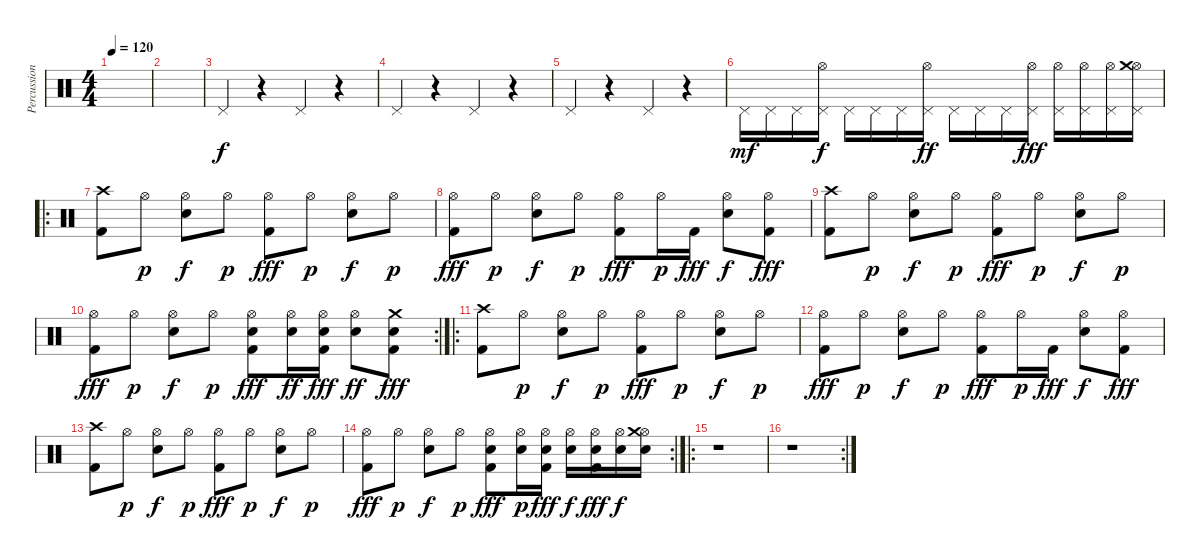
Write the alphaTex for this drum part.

\track ("Percussions" "Percussion") {instrument percussion}
\staff {score}
\articulation defaults
\ts (4 4)
\tempo 120
\clef neutral
\ks c
|
|
"Pedal Hi-Hat (hit)".4 r.4 "Pedal Hi-Hat (hit)".4 r.4 |
"Pedal Hi-Hat (hit)".4 r.4 "Pedal Hi-Hat (hit)".4 r.4 |
"Pedal Hi-Hat (hit)".4 r.4 "Pedal Hi-Hat (hit)".4 r.4 |
"Pedal Hi-Hat (hit)".16{dy mf} "Pedal Hi-Hat (hit)".16 "Pedal Hi-Hat (hit)".16 ("Pedal Hi-Hat (hit)" "Hi-Hat (open)").16{dy f} "Pedal Hi-Hat (hit)".16 "Pedal Hi-Hat (hit)".16 "Pedal Hi-Hat (hit)".16 ("Pedal Hi-Hat (hit)" "Hi-Hat (open)").16{dy ff} "Pedal Hi-Hat (hit)".16 "Pedal Hi-Hat (hit)".16 "Pedal Hi-Hat (hit)".16 ("Pedal Hi-Hat (hit)" "Hi-Hat (open)").16{dy fff} ("Pedal Hi-Hat (hit)" "Hi-Hat (open)").16 ("Pedal Hi-Hat (hit)" "Hi-Hat (open)").16 ("Pedal Hi-Hat (hit)" "Hi-Hat (open)").16 ("Pedal Hi-Hat (hit)" "Hi-Hat (open)" "Crash medium (hit)").16 |
\ro
("Kick (hit) 2" "Crash high (hit)").8 "Hi-Hat (open)".8{dy p} ("Hi-Hat (open)" "Electric Snare (hit)").8{dy f} "Hi-Hat (open)".8{dy p} ("Hi-Hat (open)" "Kick (hit) 2").8{dy fff} "Hi-Hat (open)".8{dy p} ("Hi-Hat (open)" "Electric Snare (hit)").8{dy f} "Hi-Hat (open)".8{dy p} |
("Hi-Hat (open)" "Kick (hit) 2").8{dy fff} "Hi-Hat (open)".8{dy p} ("Hi-Hat (open)" "Electric Snare (hit)").8{dy f} "Hi-Hat (open)".8{dy p} ("Hi-Hat (open)" "Kick (hit) 2").8{dy fff} "Hi-Hat (open)".16{dy p} "Kick (hit) 2".16{dy fff} ("Hi-Hat (open)" "Electric Snare (hit)").8{dy f} ("Hi-Hat (open)" "Kick (hit) 2").8{dy fff} |
("Kick (hit) 2" "Crash high (hit)").8 "Hi-Hat (open)".8{dy p} ("Hi-Hat (open)" "Electric Snare (hit)").8{dy f} "Hi-Hat (open)".8{dy p} ("Hi-Hat (open)" "Kick (hit) 2").8{dy fff} "Hi-Hat (open)".8{dy p} ("Hi-Hat (open)" "Electric Snare (hit)").8{dy f} "Hi-Hat (open)".8{dy p} |
\rc 2
("Hi-Hat (open)" "Kick (hit) 2").8{dy fff} "Hi-Hat (open)".8{dy p} ("Hi-Hat (open)" "Electric Snare (hit)").8{dy f} "Hi-Hat (open)".8{dy p} ("Hi-Hat (open)" "Electric Snare (hit)" "Kick (hit) 2").8{dy fff} ("Hi-Hat (open)" "Snare (hit) 2").16{dy ff} ("Hi-Hat (open)" "Electric Snare (hit)" "Kick (hit) 2").16{dy fff} ("Hi-Hat (open)" "Snare (hit) 2").8{dy ff} ("Crash medium (hit)" "Electric Snare (hit)" "Kick (hit) 2").8{dy fff} |
\ro
("Kick (hit) 2" "Crash high (hit)").8 "Hi-Hat (open)".8{dy p} ("Hi-Hat (open)" "Electric Snare (hit)").8{dy f} "Hi-Hat (open)".8{dy p} ("Hi-Hat (open)" "Kick (hit) 2").8{dy fff} "Hi-Hat (open)".8{dy p} ("Hi-Hat (open)" "Electric Snare (hit)").8{dy f} "Hi-Hat (open)".8{dy p} |
("Hi-Hat (open)" "Kick (hit) 2").8{dy fff} "Hi-Hat (open)".8{dy p} ("Hi-Hat (open)" "Electric Snare (hit)").8{dy f} "Hi-Hat (open)".8{dy p} ("Hi-Hat (open)" "Kick (hit) 2").8{dy fff} "Hi-Hat (open)".16{dy p} "Kick (hit) 2".16{dy fff} ("Hi-Hat (open)" "Electric Snare (hit)").8{dy f} ("Hi-Hat (open)" "Kick (hit) 2").8{dy fff} |
("Kick (hit) 2" "Crash high (hit)").8 "Hi-Hat (open)".8{dy p} ("Hi-Hat (open)" "Electric Snare (hit)").8{dy f} "Hi-Hat (open)".8{dy p} ("Hi-Hat (open)" "Kick (hit) 2").8{dy fff} "Hi-Hat (open)".8{dy p} ("Hi-Hat (open)" "Electric Snare (hit)").8{dy f} "Hi-Hat (open)".8{dy p} |
\rc 2
("Hi-Hat (open)" "Kick (hit) 2").8{dy fff} "Hi-Hat (open)".8{dy p} ("Hi-Hat (open)" "Electric Snare (hit)").8{dy f} "Hi-Hat (open)".8{dy p} ("Hi-Hat (open)" "Electric Snare (hit)" "Kick (hit) 2").8{dy fff} ("Hi-Hat (open)" "Snare (hit) 2").16{dy p} ("Hi-Hat (open)" "Electric Snare (hit)" "Kick (hit) 2").16{dy fff} ("Hi-Hat (open)" "Snare (hit) 2").16{dy f} ("Hi-Hat (open)" "Electric Snare (hit)" "Kick (hit) 2").16{dy fff} ("Hi-Hat (open)" "Snare (hit) 2").16{dy f} ("Hi-Hat (open)" "Electric Snare (hit)" "Crash medium (hit)").16 |
\ro
r.1 |
\rc 2
r.1
